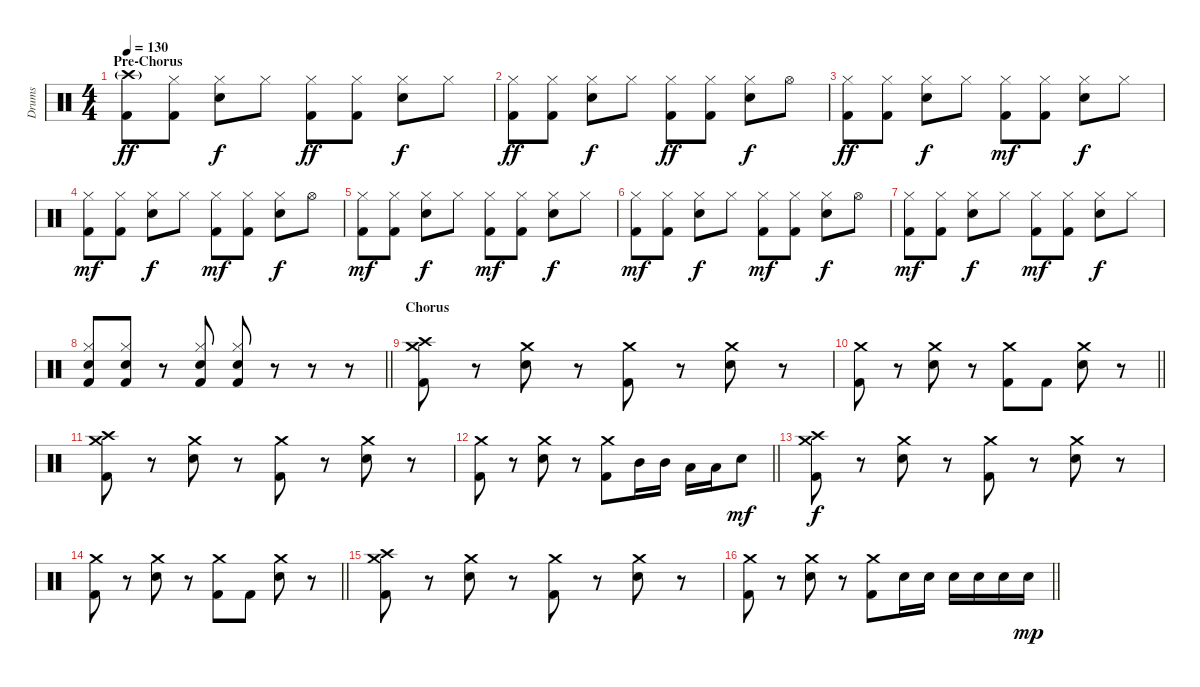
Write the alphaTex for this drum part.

\track ("Drums" "Drums") {instrument percussion}
\staff {score}
\articulation defaults
\ts (4 4)
\section ("" "Pre-Chorus")
\tempo 130
\clef neutral
\ks c
("Crash high (hit)"{g} "Kick (hit) 2").8{dy ff} ("Hi-Hat (closed)" "Kick (hit) 2").8 ("Hi-Hat (closed)" "Electric Snare (hit)").8{dy f} "Hi-Hat (closed)".8 ("Hi-Hat (closed)" "Kick (hit) 2").8{dy ff} ("Hi-Hat (closed)" "Kick (hit) 2").8 ("Hi-Hat (closed)" "Electric Snare (hit)").8{dy f} "Hi-Hat (closed)".8 |
("Hi-Hat (closed)" "Kick (hit) 2").8{dy ff} ("Hi-Hat (closed)" "Kick (hit) 2").8 ("Hi-Hat (closed)" "Electric Snare (hit)").8{dy f} "Hi-Hat (closed)".8 ("Hi-Hat (closed)" "Kick (hit) 2").8{dy ff} ("Hi-Hat (closed)" "Kick (hit) 2").8 ("Hi-Hat (closed)" "Electric Snare (hit)").8{dy f} "Hi-Hat (open)".8 |
("Hi-Hat (closed)" "Kick (hit) 2").8{dy ff} ("Hi-Hat (closed)" "Kick (hit) 2").8 ("Hi-Hat (closed)" "Electric Snare (hit)").8{dy f} "Hi-Hat (closed)".8 ("Hi-Hat (closed)" "Kick (hit) 2").8{dy mf} ("Hi-Hat (closed)" "Kick (hit) 2").8 ("Hi-Hat (closed)" "Electric Snare (hit)").8{dy f} "Hi-Hat (closed)".8 |
("Hi-Hat (closed)" "Kick (hit) 2").8{dy mf} ("Hi-Hat (closed)" "Kick (hit) 2").8 ("Hi-Hat (closed)" "Electric Snare (hit)").8{dy f} "Hi-Hat (closed)".8 ("Hi-Hat (closed)" "Kick (hit) 2").8{dy mf} ("Hi-Hat (closed)" "Kick (hit) 2").8 ("Hi-Hat (closed)" "Electric Snare (hit)").8{dy f} "Hi-Hat (open)".8 |
("Hi-Hat (closed)" "Kick (hit) 2").8{dy mf} ("Hi-Hat (closed)" "Kick (hit) 2").8 ("Hi-Hat (closed)" "Electric Snare (hit)").8{dy f} "Hi-Hat (closed)".8 ("Hi-Hat (closed)" "Kick (hit) 2").8{dy mf} ("Hi-Hat (closed)" "Kick (hit) 2").8 ("Hi-Hat (closed)" "Electric Snare (hit)").8{dy f} "Hi-Hat (closed)".8 |
("Hi-Hat (closed)" "Kick (hit) 2").8{dy mf} ("Hi-Hat (closed)" "Kick (hit) 2").8 ("Hi-Hat (closed)" "Electric Snare (hit)").8{dy f} "Hi-Hat (closed)".8 ("Hi-Hat (closed)" "Kick (hit) 2").8{dy mf} ("Hi-Hat (closed)" "Kick (hit) 2").8 ("Hi-Hat (closed)" "Electric Snare (hit)").8{dy f} "Hi-Hat (open)".8 |
("Hi-Hat (closed)" "Kick (hit) 2").8{dy mf} ("Hi-Hat (closed)" "Kick (hit) 2").8 ("Hi-Hat (closed)" "Electric Snare (hit)").8{dy f} "Hi-Hat (closed)".8 ("Hi-Hat (closed)" "Kick (hit) 2").8{dy mf} ("Hi-Hat (closed)" "Kick (hit) 2").8 ("Hi-Hat (closed)" "Electric Snare (hit)").8{dy f} "Hi-Hat (closed)".8 |
\barLineRight lightlight
("Hi-Hat (closed)" "Electric Snare (hit)" "Kick (hit) 2").8 ("Hi-Hat (closed)" "Electric Snare (hit)" "Kick (hit) 2").8 r.8 ("Hi-Hat (closed)" "Electric Snare (hit)" "Kick (hit) 2").8 ("Hi-Hat (closed)" "Electric Snare (hit)" "Kick (hit) 2").8 r.8 r.8 r.8 |
\section ("" "Chorus")
("Crash medium (hit)" "Crash high (hit)" "Kick (hit) 2").8 r.8 ("Crash medium (hit)" "Electric Snare (hit)").8 r.8 ("Crash medium (hit)" "Kick (hit) 2").8 r.8 ("Crash medium (hit)" "Electric Snare (hit)").8 r.8 |
\barLineRight lightlight
("Crash medium (hit)" "Kick (hit) 2").8 r.8 ("Crash medium (hit)" "Electric Snare (hit)").8 r.8 ("Crash medium (hit)" "Kick (hit) 2").8 "Kick (hit) 2".8 ("Crash medium (hit)" "Electric Snare (hit)").8 r.8 |
("Crash medium (hit)" "Crash high (hit)" "Kick (hit) 2").8 r.8 ("Crash medium (hit)" "Electric Snare (hit)").8 r.8 ("Crash medium (hit)" "Kick (hit) 2").8 r.8 ("Crash medium (hit)" "Electric Snare (hit)").8 r.8 |
\barLineRight lightlight
("Crash medium (hit)" "Kick (hit) 2").8 r.8 ("Crash medium (hit)" "Electric Snare (hit)").8 r.8 ("Crash medium (hit)" "Kick (hit) 2").8 "Mid Tom (hit)".16 "Mid Tom (hit)".16 "Low Tom (hit)".16 "Low Tom (hit)".16 "Electric Snare (hit)".8{dy mf} |
("Crash medium (hit)" "Crash high (hit)" "Kick (hit) 2").8{dy f} r.8 ("Crash medium (hit)" "Electric Snare (hit)").8 r.8 ("Crash medium (hit)" "Kick (hit) 2").8 r.8 ("Crash medium (hit)" "Electric Snare (hit)").8 r.8 |
\barLineRight lightlight
("Crash medium (hit)" "Kick (hit) 2").8 r.8 ("Crash medium (hit)" "Electric Snare (hit)").8 r.8 ("Crash medium (hit)" "Kick (hit) 2").8 "Kick (hit) 2".8 ("Crash medium (hit)" "Electric Snare (hit)").8 r.8 |
("Crash medium (hit)" "Crash high (hit)" "Kick (hit) 2").8 r.8 ("Crash medium (hit)" "Electric Snare (hit)").8 r.8 ("Crash medium (hit)" "Kick (hit) 2").8 r.8 ("Crash medium (hit)" "Electric Snare (hit)").8 r.8 |
\barLineRight lightlight
("Crash medium (hit)" "Kick (hit) 2").8 r.8 ("Crash medium (hit)" "Electric Snare (hit)").8 r.8 ("Crash medium (hit)" "Kick (hit) 2").8 "Electric Snare (hit)".16 "Electric Snare (hit)".16 "Electric Snare (hit)".16 "Electric Snare (hit)".16 "Electric Snare (hit)".16 "Electric Snare (hit)".16{dy mp}
